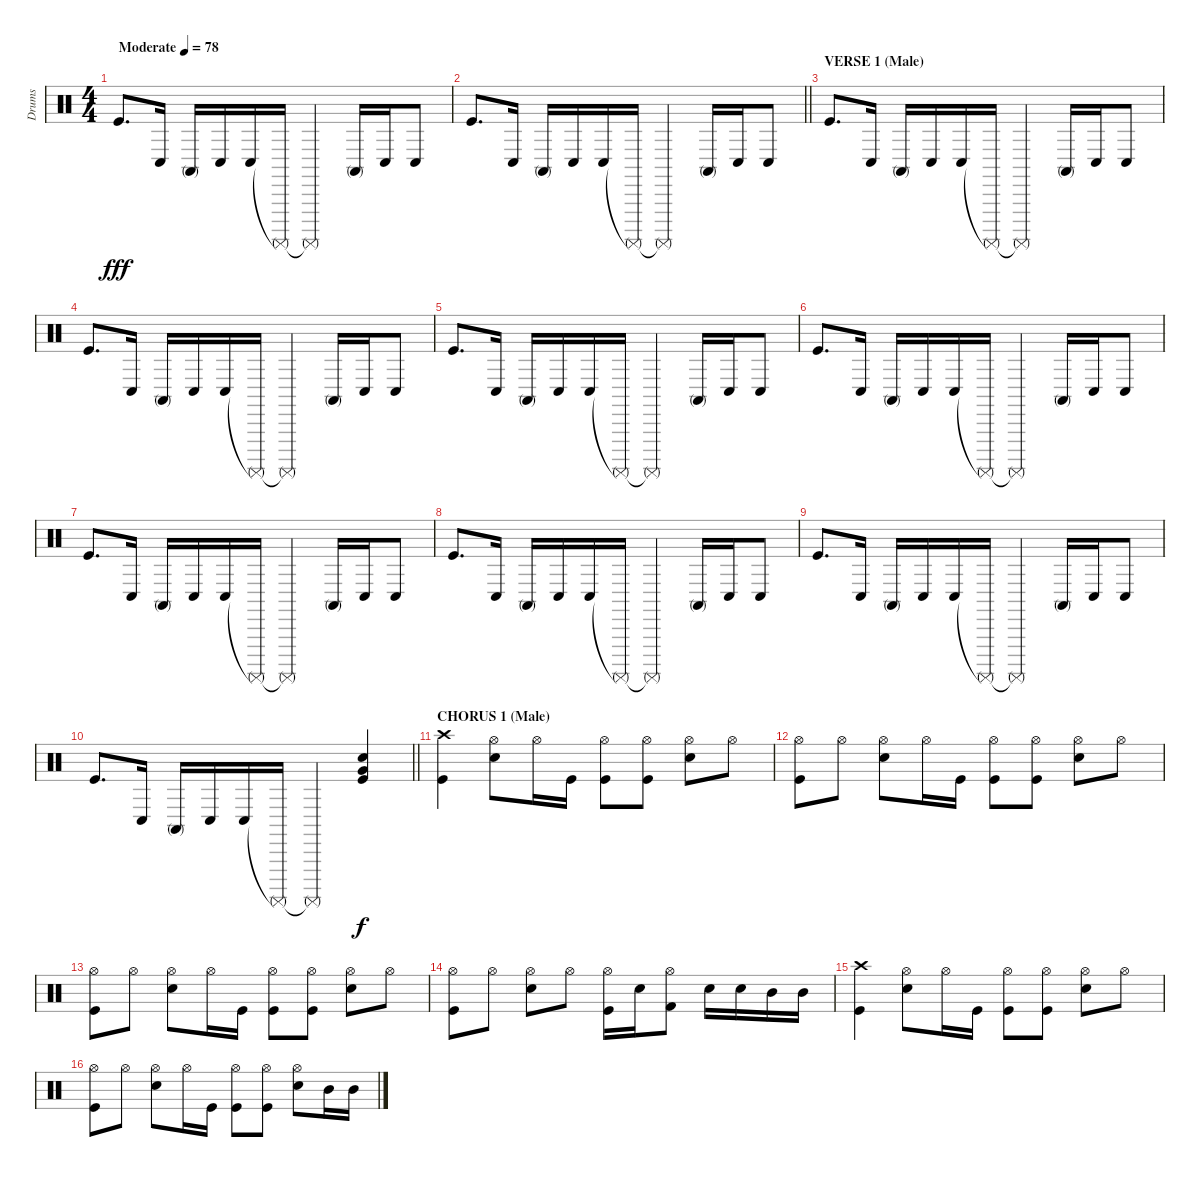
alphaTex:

\track ("Drums" "Drums") {instrument percussion}
\staff {score}
\articulation defaults
\ts (4 4)
\tempo (78 "Moderate")
\clef neutral
\ks c "Kick (hit)".8{d dy fff volume 6} "Conga low (hit)".16 "Conga high (mute)".16 "Conga low (hit)".16 "Conga low (hit)".16 "Surdo (mute)"{t}.16 "Surdo (mute)"{t}.4 "Conga high (mute)".16 "Conga low (hit)".16 "Conga low (hit)".8
|
\barLineRight lightlight "Kick (hit)".8{d} "Conga low (hit)".16 "Conga high (mute)".16 "Conga low (hit)".16 "Conga low (hit)".16 "Surdo (mute)"{t}.16 "Surdo (mute)"{t}.4 "Conga high (mute)".16 "Conga low (hit)".16 "Conga low (hit)".8
|
\section ("" "VERSE 1 (Male)")
"Kick (hit)".8{d} "Conga low (hit)".16 "Conga high (mute)".16 "Conga low (hit)".16 "Conga low (hit)".16 "Surdo (mute)"{t}.16 "Surdo (mute)"{t}.4 "Conga high (mute)".16 "Conga low (hit)".16 "Conga low (hit)".8 |
"Kick (hit)".8{d} "Conga low (hit)".16 "Conga high (mute)".16 "Conga low (hit)".16 "Conga low (hit)".16 "Surdo (mute)"{t}.16 "Surdo (mute)"{t}.4 "Conga high (mute)".16 "Conga low (hit)".16 "Conga low (hit)".8 |
"Kick (hit)".8{d} "Conga low (hit)".16 "Conga high (mute)".16 "Conga low (hit)".16 "Conga low (hit)".16 "Surdo (mute)"{t}.16 "Surdo (mute)"{t}.4 "Conga high (mute)".16 "Conga low (hit)".16 "Conga low (hit)".8 |
"Kick (hit)".8{d} "Conga low (hit)".16 "Conga high (mute)".16 "Conga low (hit)".16 "Conga low (hit)".16 "Surdo (mute)"{t}.16 "Surdo (mute)"{t}.4 "Conga high (mute)".16 "Conga low (hit)".16 "Conga low (hit)".8 |
"Kick (hit)".8{d} "Conga low (hit)".16 "Conga high (mute)".16 "Conga low (hit)".16 "Conga low (hit)".16 "Surdo (mute)"{t}.16 "Surdo (mute)"{t}.4 "Conga high (mute)".16 "Conga low (hit)".16 "Conga low (hit)".8 |
"Kick (hit)".8{d} "Conga low (hit)".16 "Conga high (mute)".16 "Conga low (hit)".16 "Conga low (hit)".16 "Surdo (mute)"{t}.16 "Surdo (mute)"{t}.4 "Conga high (mute)".16 "Conga low (hit)".16 "Conga low (hit)".8 |
"Kick (hit)".8{d} "Conga low (hit)".16 "Conga high (mute)".16 "Conga low (hit)".16 "Conga low (hit)".16 "Surdo (mute)"{t}.16 "Surdo (mute)"{t}.4 "Conga high (mute)".16 "Conga low (hit)".16 "Conga low (hit)".8 |
\barLineRight lightlight "Kick (hit)".8{d} "Conga low (hit)".16 "Conga high (mute)".16 "Conga low (hit)".16 "Conga low (hit)".16 "Surdo (mute)"{t}.16 "Surdo (mute)"{t}.4
("Kick (hit)" "Snare (hit) 2" "Very Low Tom (hit)").4{dy f volume 11} |
\section ("" "CHORUS 1 (Male)")
("Crash high (hit)" "Kick (hit)").4 ("Hi-Hat (open)" "Snare (hit) 2").8 "Hi-Hat (open)".16 "Kick (hit)".16 ("Hi-Hat (open)" "Kick (hit)").8 ("Hi-Hat (open)" "Kick (hit)").8 ("Hi-Hat (open)" "Snare (hit) 2").8 "Hi-Hat (open)".8 |
("Hi-Hat (open)" "Kick (hit)").8 "Hi-Hat (open)".8 ("Hi-Hat (open)" "Snare (hit) 2").8 "Hi-Hat (open)".16 "Kick (hit)".16 ("Hi-Hat (open)" "Kick (hit)").8 ("Hi-Hat (open)" "Kick (hit)").8 ("Hi-Hat (open)" "Snare (hit) 2").8 "Hi-Hat (open)".8 |
("Hi-Hat (open)" "Kick (hit)").8 "Hi-Hat (open)".8 ("Hi-Hat (open)" "Snare (hit) 2").8 "Hi-Hat (open)".16 "Kick (hit)".16 ("Hi-Hat (open)" "Kick (hit)").8 ("Hi-Hat (open)" "Kick (hit)").8 ("Hi-Hat (open)" "Snare (hit) 2").8 "Hi-Hat (open)".8 |
("Hi-Hat (open)" "Kick (hit)").8 "Hi-Hat (open)".8 ("Hi-Hat (open)" "Snare (hit) 2").8 "Hi-Hat (open)".8 ("Kick (hit)" "Hi-Hat (open)").16 "Snare (hit) 2".16 ("Hi-Hat (open)" "Kick (hit) 2").8 "Snare (hit) 2".16 "Snare (hit) 2".16 "Mid Tom (hit)".16 "Mid Tom (hit)".16 |
("Crash high (hit)" "Kick (hit)").4 ("Hi-Hat (open)" "Snare (hit) 2").8 "Hi-Hat (open)".16 "Kick (hit)".16 ("Hi-Hat (open)" "Kick (hit)").8 ("Hi-Hat (open)" "Kick (hit)").8 ("Hi-Hat (open)" "Snare (hit) 2").8 "Hi-Hat (open)".8 |
("Hi-Hat (open)" "Kick (hit)").8 "Hi-Hat (open)".8 ("Hi-Hat (open)" "Snare (hit) 2").8 "Hi-Hat (open)".16 "Kick (hit)".16 ("Hi-Hat (open)" "Kick (hit)").8 ("Hi-Hat (open)" "Kick (hit)").8 ("Hi-Hat (open)" "Snare (hit) 2").8 "Mid Tom (hit)".16 "Mid Tom (hit)".16
